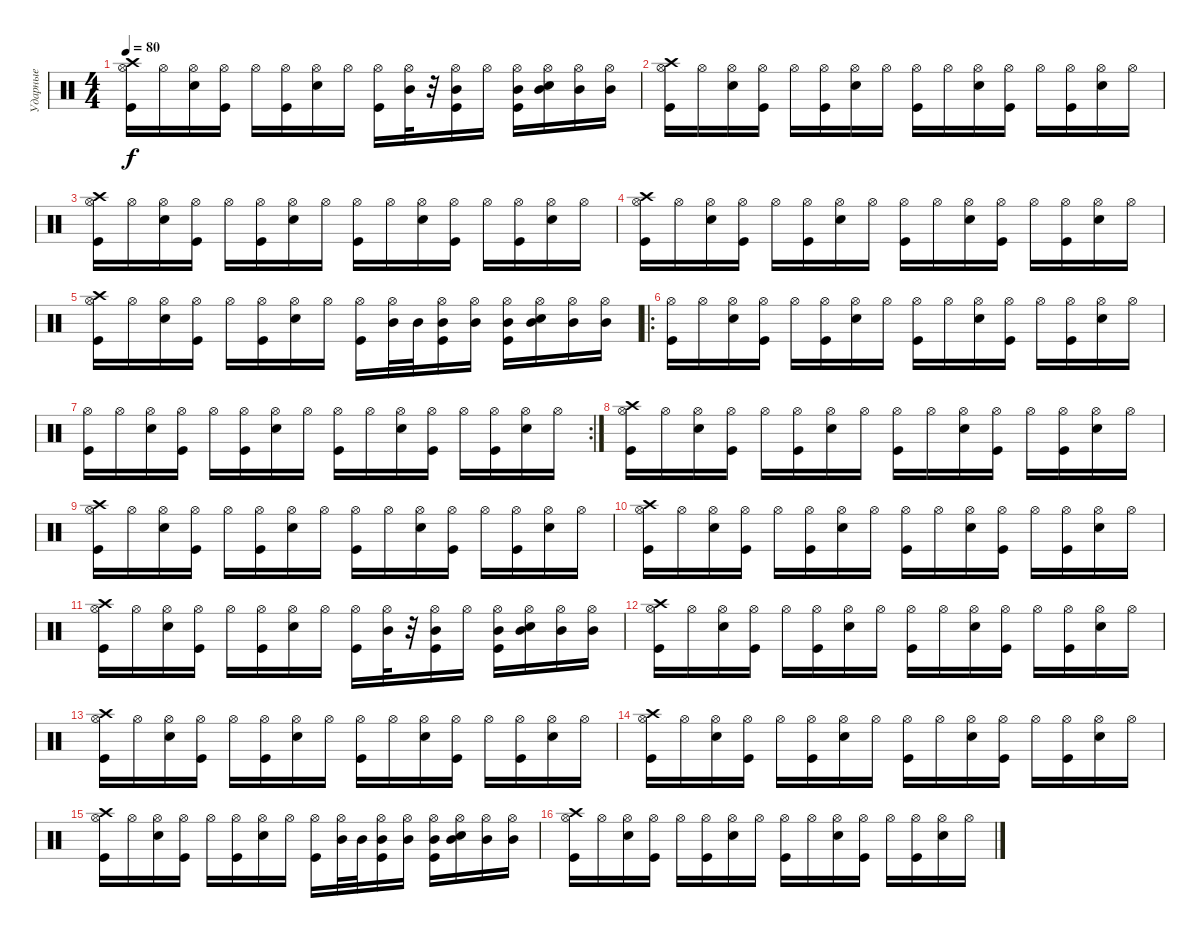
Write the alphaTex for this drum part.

\track ("Ударные" "Ударные") {instrument percussion}
\staff {score}
\articulation defaults
\ts (4 4)
\tempo 80
\clef neutral
\ks c
("Kick (hit)" "Crash high (hit)" "Hi-Hat (open)").16{dy f} "Hi-Hat (open)".16 ("Electric Snare (hit)" "Hi-Hat (open)").16 ("Kick (hit)" "Hi-Hat (open)").16 "Hi-Hat (open)".16 ("Hi-Hat (open)" "Kick (hit)").16 ("Hi-Hat (open)" "Electric Snare (hit)").16 "Hi-Hat (open)".16 ("Kick (hit)" "Hi-Hat (open)").16 ("Hi-Hat (open)" "Mid Tom (hit)").32 r.32 ("Kick (hit)" "Hi-Hat (open)" "Mid Tom (hit)").16 "Hi-Hat (open)".16 ("Hi-Hat (open)" "Kick (hit)" "Mid Tom (hit)").16 ("Hi-Hat (open)" "Electric Snare (hit)" "Mid Tom (hit)").16 ("Hi-Hat (open)" "Mid Tom (hit)").16 ("Hi-Hat (open)" "Mid Tom (hit)").16 |
("Kick (hit)" "Crash high (hit)" "Hi-Hat (open)").16 "Hi-Hat (open)".16 ("Electric Snare (hit)" "Hi-Hat (open)").16 ("Kick (hit)" "Hi-Hat (open)").16 "Hi-Hat (open)".16 ("Hi-Hat (open)" "Kick (hit)").16 ("Hi-Hat (open)" "Electric Snare (hit)").16 "Hi-Hat (open)".16 ("Kick (hit)" "Hi-Hat (open)").16 "Hi-Hat (open)".16 ("Electric Snare (hit)" "Hi-Hat (open)").16 ("Kick (hit)" "Hi-Hat (open)").16 "Hi-Hat (open)".16 ("Hi-Hat (open)" "Kick (hit)").16 ("Hi-Hat (open)" "Electric Snare (hit)").16 "Hi-Hat (open)".16 |
("Kick (hit)" "Crash high (hit)" "Hi-Hat (open)").16 "Hi-Hat (open)".16 ("Electric Snare (hit)" "Hi-Hat (open)").16 ("Kick (hit)" "Hi-Hat (open)").16 "Hi-Hat (open)".16 ("Hi-Hat (open)" "Kick (hit)").16 ("Hi-Hat (open)" "Electric Snare (hit)").16 "Hi-Hat (open)".16 ("Kick (hit)" "Hi-Hat (open)").16 "Hi-Hat (open)".16 ("Electric Snare (hit)" "Hi-Hat (open)").16 ("Kick (hit)" "Hi-Hat (open)").16 "Hi-Hat (open)".16 ("Hi-Hat (open)" "Kick (hit)").16 ("Hi-Hat (open)" "Electric Snare (hit)").16 "Hi-Hat (open)".16 |
("Kick (hit)" "Crash high (hit)" "Hi-Hat (open)").16 "Hi-Hat (open)".16 ("Electric Snare (hit)" "Hi-Hat (open)").16 ("Kick (hit)" "Hi-Hat (open)").16 "Hi-Hat (open)".16 ("Hi-Hat (open)" "Kick (hit)").16 ("Hi-Hat (open)" "Electric Snare (hit)").16 "Hi-Hat (open)".16 ("Kick (hit)" "Hi-Hat (open)").16 "Hi-Hat (open)".16 ("Electric Snare (hit)" "Hi-Hat (open)").16 ("Kick (hit)" "Hi-Hat (open)").16 "Hi-Hat (open)".16 ("Hi-Hat (open)" "Kick (hit)").16 ("Hi-Hat (open)" "Electric Snare (hit)").16 "Hi-Hat (open)".16 |
("Kick (hit)" "Crash high (hit)" "Hi-Hat (open)").16 "Hi-Hat (open)".16 ("Electric Snare (hit)" "Hi-Hat (open)").16 ("Kick (hit)" "Hi-Hat (open)").16 "Hi-Hat (open)".16 ("Hi-Hat (open)" "Kick (hit)").16 ("Hi-Hat (open)" "Electric Snare (hit)").16 "Hi-Hat (open)".16 ("Kick (hit)" "Hi-Hat (open)").16 ("Hi-Hat (open)" "Mid Tom (hit)").32 "Mid Tom (hit)".32 ("Kick (hit)" "Hi-Hat (open)" "Mid Tom (hit)").16 ("Hi-Hat (open)" "Mid Tom (hit)").16 ("Hi-Hat (open)" "Kick (hit)" "Mid Tom (hit)").16 ("Hi-Hat (open)" "Electric Snare (hit)" "Mid Tom (hit)").16 ("Hi-Hat (open)" "Mid Tom (hit)").16 ("Hi-Hat (open)" "Mid Tom (hit)").16 |
\ro
("Kick (hit)" "Hi-Hat (open)").16 "Hi-Hat (open)".16 ("Electric Snare (hit)" "Hi-Hat (open)").16 ("Kick (hit)" "Hi-Hat (open)").16 "Hi-Hat (open)".16 ("Hi-Hat (open)" "Kick (hit)").16 ("Hi-Hat (open)" "Electric Snare (hit)").16 "Hi-Hat (open)".16 ("Kick (hit)" "Hi-Hat (open)").16 "Hi-Hat (open)".16 ("Electric Snare (hit)" "Hi-Hat (open)").16 ("Kick (hit)" "Hi-Hat (open)").16 "Hi-Hat (open)".16 ("Hi-Hat (open)" "Kick (hit)").16 ("Hi-Hat (open)" "Electric Snare (hit)").16 "Hi-Hat (open)".16 |
\rc 2
("Kick (hit)" "Hi-Hat (open)").16 "Hi-Hat (open)".16 ("Electric Snare (hit)" "Hi-Hat (open)").16 ("Kick (hit)" "Hi-Hat (open)").16 "Hi-Hat (open)".16 ("Hi-Hat (open)" "Kick (hit)").16 ("Hi-Hat (open)" "Electric Snare (hit)").16 "Hi-Hat (open)".16 ("Kick (hit)" "Hi-Hat (open)").16 "Hi-Hat (open)".16 ("Electric Snare (hit)" "Hi-Hat (open)").16 ("Kick (hit)" "Hi-Hat (open)").16 "Hi-Hat (open)".16 ("Hi-Hat (open)" "Kick (hit)").16 ("Hi-Hat (open)" "Electric Snare (hit)").16 "Hi-Hat (open)".16 |
("Kick (hit)" "Crash high (hit)" "Hi-Hat (open)").16 "Hi-Hat (open)".16 ("Electric Snare (hit)" "Hi-Hat (open)").16 ("Kick (hit)" "Hi-Hat (open)").16 "Hi-Hat (open)".16 ("Hi-Hat (open)" "Kick (hit)").16 ("Hi-Hat (open)" "Electric Snare (hit)").16 "Hi-Hat (open)".16 ("Kick (hit)" "Hi-Hat (open)").16 "Hi-Hat (open)".16 ("Electric Snare (hit)" "Hi-Hat (open)").16 ("Kick (hit)" "Hi-Hat (open)").16 "Hi-Hat (open)".16 ("Hi-Hat (open)" "Kick (hit)").16 ("Hi-Hat (open)" "Electric Snare (hit)").16 "Hi-Hat (open)".16 |
("Kick (hit)" "Crash high (hit)" "Hi-Hat (open)").16 "Hi-Hat (open)".16 ("Electric Snare (hit)" "Hi-Hat (open)").16 ("Kick (hit)" "Hi-Hat (open)").16 "Hi-Hat (open)".16 ("Hi-Hat (open)" "Kick (hit)").16 ("Hi-Hat (open)" "Electric Snare (hit)").16 "Hi-Hat (open)".16 ("Kick (hit)" "Hi-Hat (open)").16 "Hi-Hat (open)".16 ("Electric Snare (hit)" "Hi-Hat (open)").16 ("Kick (hit)" "Hi-Hat (open)").16 "Hi-Hat (open)".16 ("Hi-Hat (open)" "Kick (hit)").16 ("Hi-Hat (open)" "Electric Snare (hit)").16 "Hi-Hat (open)".16 |
("Kick (hit)" "Crash high (hit)" "Hi-Hat (open)").16 "Hi-Hat (open)".16 ("Electric Snare (hit)" "Hi-Hat (open)").16 ("Kick (hit)" "Hi-Hat (open)").16 "Hi-Hat (open)".16 ("Hi-Hat (open)" "Kick (hit)").16 ("Hi-Hat (open)" "Electric Snare (hit)").16 "Hi-Hat (open)".16 ("Kick (hit)" "Hi-Hat (open)").16 "Hi-Hat (open)".16 ("Electric Snare (hit)" "Hi-Hat (open)").16 ("Kick (hit)" "Hi-Hat (open)").16 "Hi-Hat (open)".16 ("Hi-Hat (open)" "Kick (hit)").16 ("Hi-Hat (open)" "Electric Snare (hit)").16 "Hi-Hat (open)".16 |
("Kick (hit)" "Crash high (hit)" "Hi-Hat (open)").16 "Hi-Hat (open)".16 ("Electric Snare (hit)" "Hi-Hat (open)").16 ("Kick (hit)" "Hi-Hat (open)").16 "Hi-Hat (open)".16 ("Hi-Hat (open)" "Kick (hit)").16 ("Hi-Hat (open)" "Electric Snare (hit)").16 "Hi-Hat (open)".16 ("Kick (hit)" "Hi-Hat (open)").16 ("Hi-Hat (open)" "Mid Tom (hit)").32 r.32 ("Kick (hit)" "Hi-Hat (open)" "Mid Tom (hit)").16 "Hi-Hat (open)".16 ("Hi-Hat (open)" "Kick (hit)" "Mid Tom (hit)").16 ("Hi-Hat (open)" "Electric Snare (hit)" "Mid Tom (hit)").16 ("Hi-Hat (open)" "Mid Tom (hit)").16 ("Hi-Hat (open)" "Mid Tom (hit)").16 |
("Kick (hit)" "Crash high (hit)" "Hi-Hat (open)").16 "Hi-Hat (open)".16 ("Electric Snare (hit)" "Hi-Hat (open)").16 ("Kick (hit)" "Hi-Hat (open)").16 "Hi-Hat (open)".16 ("Hi-Hat (open)" "Kick (hit)").16 ("Hi-Hat (open)" "Electric Snare (hit)").16 "Hi-Hat (open)".16 ("Kick (hit)" "Hi-Hat (open)").16 "Hi-Hat (open)".16 ("Electric Snare (hit)" "Hi-Hat (open)").16 ("Kick (hit)" "Hi-Hat (open)").16 "Hi-Hat (open)".16 ("Hi-Hat (open)" "Kick (hit)").16 ("Hi-Hat (open)" "Electric Snare (hit)").16 "Hi-Hat (open)".16 |
("Kick (hit)" "Crash high (hit)" "Hi-Hat (open)").16 "Hi-Hat (open)".16 ("Electric Snare (hit)" "Hi-Hat (open)").16 ("Kick (hit)" "Hi-Hat (open)").16 "Hi-Hat (open)".16 ("Hi-Hat (open)" "Kick (hit)").16 ("Hi-Hat (open)" "Electric Snare (hit)").16 "Hi-Hat (open)".16 ("Kick (hit)" "Hi-Hat (open)").16 "Hi-Hat (open)".16 ("Electric Snare (hit)" "Hi-Hat (open)").16 ("Kick (hit)" "Hi-Hat (open)").16 "Hi-Hat (open)".16 ("Hi-Hat (open)" "Kick (hit)").16 ("Hi-Hat (open)" "Electric Snare (hit)").16 "Hi-Hat (open)".16 |
("Kick (hit)" "Crash high (hit)" "Hi-Hat (open)").16 "Hi-Hat (open)".16 ("Electric Snare (hit)" "Hi-Hat (open)").16 ("Kick (hit)" "Hi-Hat (open)").16 "Hi-Hat (open)".16 ("Hi-Hat (open)" "Kick (hit)").16 ("Hi-Hat (open)" "Electric Snare (hit)").16 "Hi-Hat (open)".16 ("Kick (hit)" "Hi-Hat (open)").16 "Hi-Hat (open)".16 ("Electric Snare (hit)" "Hi-Hat (open)").16 ("Kick (hit)" "Hi-Hat (open)").16 "Hi-Hat (open)".16 ("Hi-Hat (open)" "Kick (hit)").16 ("Hi-Hat (open)" "Electric Snare (hit)").16 "Hi-Hat (open)".16 |
("Kick (hit)" "Crash high (hit)" "Hi-Hat (open)").16 "Hi-Hat (open)".16 ("Electric Snare (hit)" "Hi-Hat (open)").16 ("Kick (hit)" "Hi-Hat (open)").16 "Hi-Hat (open)".16 ("Hi-Hat (open)" "Kick (hit)").16 ("Hi-Hat (open)" "Electric Snare (hit)").16 "Hi-Hat (open)".16 ("Kick (hit)" "Hi-Hat (open)").16 ("Hi-Hat (open)" "Mid Tom (hit)").32 "Mid Tom (hit)".32 ("Kick (hit)" "Hi-Hat (open)" "Mid Tom (hit)").16 ("Hi-Hat (open)" "Mid Tom (hit)").16 ("Hi-Hat (open)" "Kick (hit)" "Mid Tom (hit)").16 ("Hi-Hat (open)" "Electric Snare (hit)" "Mid Tom (hit)").16 ("Hi-Hat (open)" "Mid Tom (hit)").16 ("Hi-Hat (open)" "Mid Tom (hit)").16 |
("Kick (hit)" "Crash high (hit)" "Hi-Hat (open)").16 "Hi-Hat (open)".16 ("Electric Snare (hit)" "Hi-Hat (open)").16 ("Kick (hit)" "Hi-Hat (open)").16 "Hi-Hat (open)".16 ("Hi-Hat (open)" "Kick (hit)").16 ("Hi-Hat (open)" "Electric Snare (hit)").16 "Hi-Hat (open)".16 ("Kick (hit)" "Hi-Hat (open)").16 "Hi-Hat (open)".16 ("Electric Snare (hit)" "Hi-Hat (open)").16 ("Kick (hit)" "Hi-Hat (open)").16 "Hi-Hat (open)".16 ("Hi-Hat (open)" "Kick (hit)").16 ("Hi-Hat (open)" "Electric Snare (hit)").16 "Hi-Hat (open)".16
